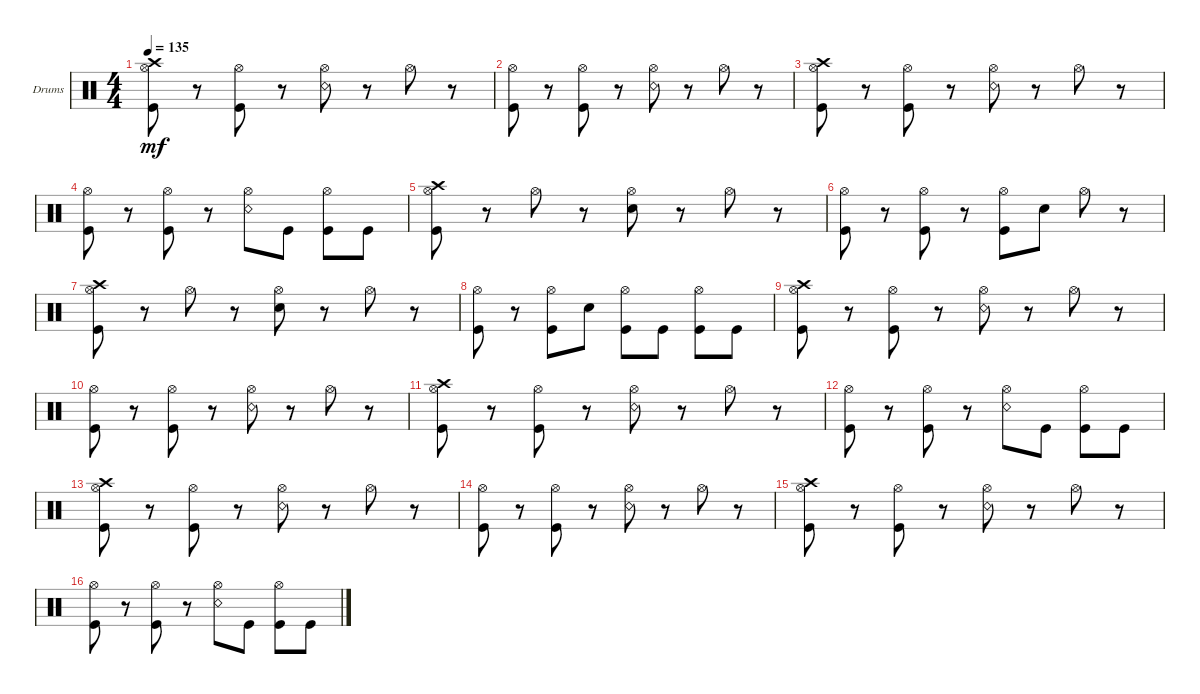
\defaultSystemsLayout 4
\bracketExtendMode groupsimilarinstruments
\firstSystemTrackNameOrientation horizontal
\otherSystemsTrackNameOrientation horizontal
\track ("Drumkit" "Drums") {instrument percussion}
\staff {score}
\articulation defaults
\ts (4 4)
\tempo 135
\clef neutral
\ks c
("Crash high (hit)" "Kick (hit)" "Hi-Hat (open)").8{dy mf} r.8 ("Kick (hit)" "Hi-Hat (open)").8 r.8 ("Snare (rim shot)" "Hi-Hat (open)").8 r.8 "Hi-Hat (open)".8 r.8 |
("Kick (hit)" "Hi-Hat (open)").8 r.8 ("Kick (hit)" "Hi-Hat (open)").8 r.8 ("Snare (rim shot)" "Hi-Hat (open)").8 r.8 "Hi-Hat (open)".8 r.8 |
("Crash high (hit)" "Kick (hit)" "Hi-Hat (open)").8 r.8 ("Kick (hit)" "Hi-Hat (open)").8 r.8 ("Snare (rim shot)" "Hi-Hat (open)").8 r.8 "Hi-Hat (open)".8 r.8 |
("Kick (hit)" "Hi-Hat (open)").8 r.8 ("Kick (hit)" "Hi-Hat (open)").8 r.8 ("Snare (rim shot)" "Hi-Hat (open)").8 "Kick (hit)".8 ("Hi-Hat (open)" "Kick (hit)").8 "Kick (hit)".8 |
("Crash high (hit)" "Kick (hit)" "Hi-Hat (open)").8 r.8 "Hi-Hat (open)".8 r.8 ("Hi-Hat (open)" "Snare (hit) 2").8 r.8 "Hi-Hat (open)".8 r.8 |
("Kick (hit)" "Hi-Hat (open)").8 r.8 ("Kick (hit)" "Hi-Hat (open)").8 r.8 ("Kick (hit)" "Hi-Hat (open)").8 "Snare (hit) 2".8 "Hi-Hat (open)".8 r.8 |
("Crash high (hit)" "Kick (hit)" "Hi-Hat (open)").8 r.8 "Hi-Hat (open)".8 r.8 ("Hi-Hat (open)" "Snare (hit) 2").8 r.8 "Hi-Hat (open)".8 r.8 |
("Kick (hit)" "Hi-Hat (open)").8 r.8 ("Kick (hit)" "Hi-Hat (open)").8 "Snare (hit) 2".8 ("Kick (hit)" "Hi-Hat (open)").8 "Kick (hit)".8 ("Kick (hit)" "Hi-Hat (open)").8 "Kick (hit)".8 |
("Crash high (hit)" "Kick (hit)" "Hi-Hat (open)").8 r.8 ("Kick (hit)" "Hi-Hat (open)").8 r.8 ("Snare (rim shot)" "Hi-Hat (open)").8 r.8 "Hi-Hat (open)".8 r.8 |
("Kick (hit)" "Hi-Hat (open)").8 r.8 ("Kick (hit)" "Hi-Hat (open)").8 r.8 ("Snare (rim shot)" "Hi-Hat (open)").8 r.8 "Hi-Hat (open)".8 r.8 |
("Crash high (hit)" "Kick (hit)" "Hi-Hat (open)").8 r.8 ("Kick (hit)" "Hi-Hat (open)").8 r.8 ("Snare (rim shot)" "Hi-Hat (open)").8 r.8 "Hi-Hat (open)".8 r.8 |
("Kick (hit)" "Hi-Hat (open)").8 r.8 ("Kick (hit)" "Hi-Hat (open)").8 r.8 ("Snare (rim shot)" "Hi-Hat (open)").8 "Kick (hit)".8 ("Hi-Hat (open)" "Kick (hit)").8 "Kick (hit)".8 |
("Crash high (hit)" "Kick (hit)" "Hi-Hat (open)").8 r.8 ("Kick (hit)" "Hi-Hat (open)").8 r.8 ("Snare (rim shot)" "Hi-Hat (open)").8 r.8 "Hi-Hat (open)".8 r.8 |
("Kick (hit)" "Hi-Hat (open)").8 r.8 ("Kick (hit)" "Hi-Hat (open)").8 r.8 ("Snare (rim shot)" "Hi-Hat (open)").8 r.8 "Hi-Hat (open)".8 r.8 |
("Crash high (hit)" "Kick (hit)" "Hi-Hat (open)").8 r.8 ("Kick (hit)" "Hi-Hat (open)").8 r.8 ("Snare (rim shot)" "Hi-Hat (open)").8 r.8 "Hi-Hat (open)".8 r.8 |
("Kick (hit)" "Hi-Hat (open)").8 r.8 ("Kick (hit)" "Hi-Hat (open)").8 r.8 ("Snare (rim shot)" "Hi-Hat (open)").8 "Kick (hit)".8 ("Hi-Hat (open)" "Kick (hit)").8 "Kick (hit)".8
